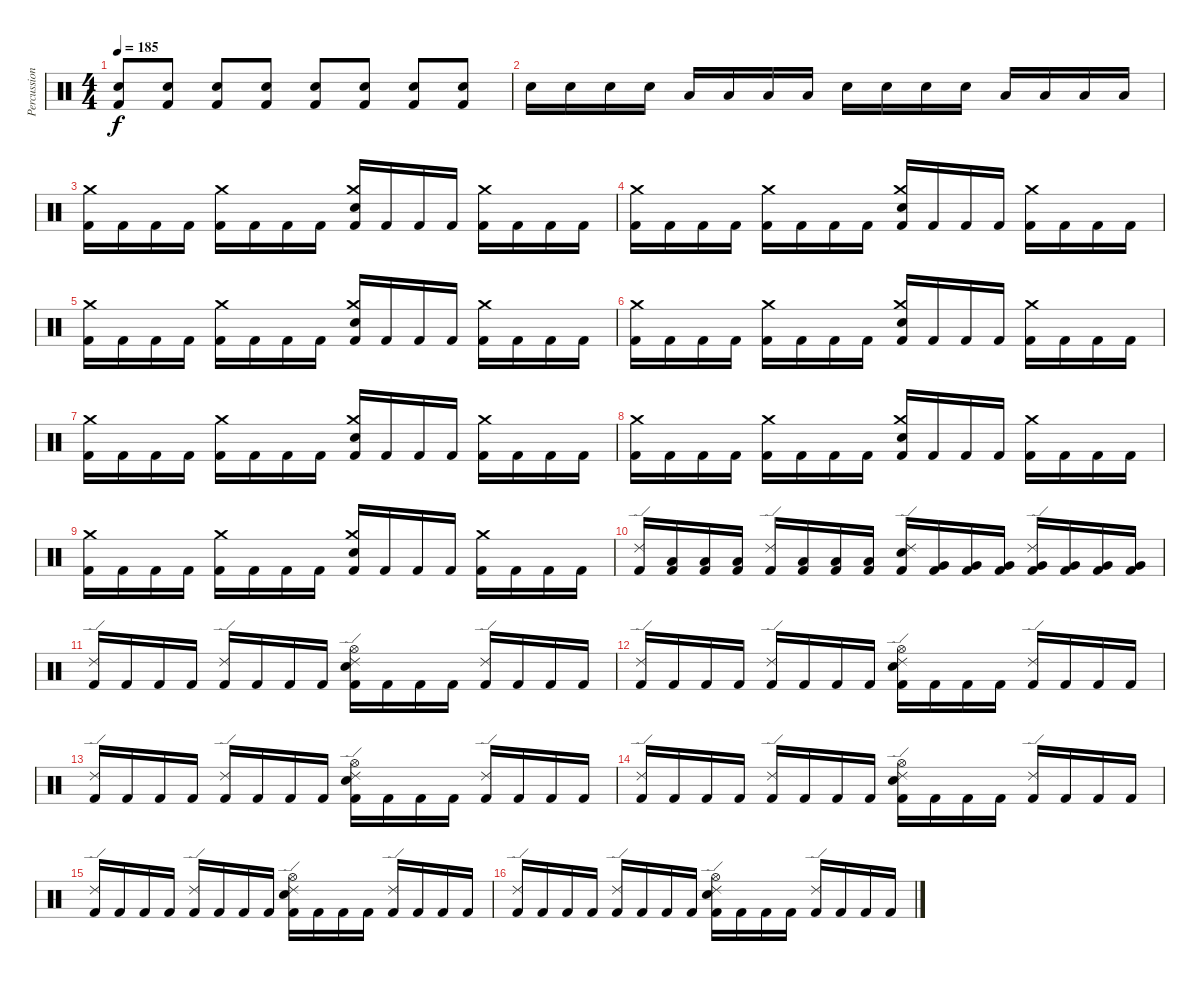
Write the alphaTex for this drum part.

\track ("Percussion" "Percussion") {instrument percussion}
\staff {score}
\articulation defaults
\ts (4 4)
\tempo 185
\clef neutral
\ks c
("Electric Snare (hit)" "Kick (hit) 2").8{dy f} ("Electric Snare (hit)" "Kick (hit) 2").8 ("Electric Snare (hit)" "Kick (hit) 2").8 ("Electric Snare (hit)" "Kick (hit) 2").8 ("Electric Snare (hit)" "Kick (hit) 2").8 ("Electric Snare (hit)" "Kick (hit) 2").8 ("Electric Snare (hit)" "Kick (hit) 2").8 ("Electric Snare (hit)" "Kick (hit) 2").8 |
"Electric Snare (hit)".16 "Electric Snare (hit)".16 "Electric Snare (hit)".16 "Electric Snare (hit)".16 "Low Floor Tom (hit)".16 "Low Floor Tom (hit)".16 "Low Floor Tom (hit)".16 "Low Floor Tom (hit)".16 "Electric Snare (hit)".16 "Electric Snare (hit)".16 "Electric Snare (hit)".16 "Electric Snare (hit)".16 "Low Floor Tom (hit)".16 "Low Floor Tom (hit)".16 "Low Floor Tom (hit)".16 "Low Floor Tom (hit)".16 |
("Crash medium (hit)" "Kick (hit) 2").16 "Kick (hit) 2".16 "Kick (hit) 2".16 "Kick (hit) 2".16 ("Crash medium (hit)" "Kick (hit) 2").16 "Kick (hit) 2".16 "Kick (hit) 2".16 "Kick (hit) 2".16 ("Crash medium (hit)" "Snare (hit) 2" "Kick (hit) 2").16 "Kick (hit) 2".16 "Kick (hit) 2".16 "Kick (hit) 2".16 ("Crash medium (hit)" "Kick (hit) 2").16 "Kick (hit) 2".16 "Kick (hit) 2".16 "Kick (hit) 2".16 |
("Crash medium (hit)" "Kick (hit) 2").16 "Kick (hit) 2".16 "Kick (hit) 2".16 "Kick (hit) 2".16 ("Crash medium (hit)" "Kick (hit) 2").16 "Kick (hit) 2".16 "Kick (hit) 2".16 "Kick (hit) 2".16 ("Crash medium (hit)" "Snare (hit) 2" "Kick (hit) 2").16 "Kick (hit) 2".16 "Kick (hit) 2".16 "Kick (hit) 2".16 ("Crash medium (hit)" "Kick (hit) 2").16 "Kick (hit) 2".16 "Kick (hit) 2".16 "Kick (hit) 2".16 |
("Crash medium (hit)" "Kick (hit) 2").16 "Kick (hit) 2".16 "Kick (hit) 2".16 "Kick (hit) 2".16 ("Crash medium (hit)" "Kick (hit) 2").16 "Kick (hit) 2".16 "Kick (hit) 2".16 "Kick (hit) 2".16 ("Crash medium (hit)" "Snare (hit) 2" "Kick (hit) 2").16 "Kick (hit) 2".16 "Kick (hit) 2".16 "Kick (hit) 2".16 ("Crash medium (hit)" "Kick (hit) 2").16 "Kick (hit) 2".16 "Kick (hit) 2".16 "Kick (hit) 2".16 |
("Crash medium (hit)" "Kick (hit) 2").16 "Kick (hit) 2".16 "Kick (hit) 2".16 "Kick (hit) 2".16 ("Crash medium (hit)" "Kick (hit) 2").16 "Kick (hit) 2".16 "Kick (hit) 2".16 "Kick (hit) 2".16 ("Crash medium (hit)" "Snare (hit) 2" "Kick (hit) 2").16 "Kick (hit) 2".16 "Kick (hit) 2".16 "Kick (hit) 2".16 ("Crash medium (hit)" "Kick (hit) 2").16 "Kick (hit) 2".16 "Kick (hit) 2".16 "Kick (hit) 2".16 |
("Crash medium (hit)" "Kick (hit) 2").16 "Kick (hit) 2".16 "Kick (hit) 2".16 "Kick (hit) 2".16 ("Crash medium (hit)" "Kick (hit) 2").16 "Kick (hit) 2".16 "Kick (hit) 2".16 "Kick (hit) 2".16 ("Crash medium (hit)" "Snare (hit) 2" "Kick (hit) 2").16 "Kick (hit) 2".16 "Kick (hit) 2".16 "Kick (hit) 2".16 ("Crash medium (hit)" "Kick (hit) 2").16 "Kick (hit) 2".16 "Kick (hit) 2".16 "Kick (hit) 2".16 |
("Crash medium (hit)" "Kick (hit) 2").16 "Kick (hit) 2".16 "Kick (hit) 2".16 "Kick (hit) 2".16 ("Crash medium (hit)" "Kick (hit) 2").16 "Kick (hit) 2".16 "Kick (hit) 2".16 "Kick (hit) 2".16 ("Crash medium (hit)" "Snare (hit) 2" "Kick (hit) 2").16 "Kick (hit) 2".16 "Kick (hit) 2".16 "Kick (hit) 2".16 ("Crash medium (hit)" "Kick (hit) 2").16 "Kick (hit) 2".16 "Kick (hit) 2".16 "Kick (hit) 2".16 |
("Crash medium (hit)" "Kick (hit) 2").16 "Kick (hit) 2".16 "Kick (hit) 2".16 "Kick (hit) 2".16 ("Crash medium (hit)" "Kick (hit) 2").16 "Kick (hit) 2".16 "Kick (hit) 2".16 "Kick (hit) 2".16 ("Crash medium (hit)" "Snare (hit) 2" "Kick (hit) 2").16 "Kick (hit) 2".16 "Kick (hit) 2".16 "Kick (hit) 2".16 ("Crash medium (hit)" "Kick (hit) 2").16 "Kick (hit) 2".16 "Kick (hit) 2".16 "Kick (hit) 2".16 |
("Ride (edge) 2" "Kick (hit) 2").16 ("Low Floor Tom (hit)" "Kick (hit) 2").16 ("Low Floor Tom (hit)" "Kick (hit) 2").16 ("Low Floor Tom (hit)" "Kick (hit) 2").16 ("Ride (edge) 2" "Kick (hit) 2").16 ("Low Floor Tom (hit)" "Kick (hit) 2").16 ("Low Floor Tom (hit)" "Kick (hit) 2").16 ("Low Floor Tom (hit)" "Kick (hit) 2").16 ("Ride (edge) 2" "Snare (hit) 2" "Kick (hit) 2").16 ("Very Low Tom (hit)" "Kick (hit) 2").16 ("Very Low Tom (hit)" "Kick (hit) 2").16 ("Very Low Tom (hit)" "Kick (hit) 2").16 ("Ride (edge) 2" "Very Low Tom (hit)" "Kick (hit) 2").16 ("Very Low Tom (hit)" "Kick (hit) 2").16 ("Very Low Tom (hit)" "Kick (hit) 2").16 ("Very Low Tom (hit)" "Kick (hit) 2").16 |
("Ride (edge) 2" "Kick (hit) 2").16 "Kick (hit) 2".16 "Kick (hit) 2".16 "Kick (hit) 2".16 ("Ride (edge) 2" "Kick (hit) 2").16 "Kick (hit) 2".16 "Kick (hit) 2".16 "Kick (hit) 2".16 ("Hi-Hat (open)" "Ride (edge) 2" "Snare (hit) 2" "Kick (hit) 2").16 "Kick (hit) 2".16 "Kick (hit) 2".16 "Kick (hit) 2".16 ("Ride (edge) 2" "Kick (hit) 2").16 "Kick (hit) 2".16 "Kick (hit) 2".16 "Kick (hit) 2".16 |
("Ride (edge) 2" "Kick (hit) 2").16 "Kick (hit) 2".16 "Kick (hit) 2".16 "Kick (hit) 2".16 ("Ride (edge) 2" "Kick (hit) 2").16 "Kick (hit) 2".16 "Kick (hit) 2".16 "Kick (hit) 2".16 ("Hi-Hat (open)" "Ride (edge) 2" "Snare (hit) 2" "Kick (hit) 2").16 "Kick (hit) 2".16 "Kick (hit) 2".16 "Kick (hit) 2".16 ("Ride (edge) 2" "Kick (hit) 2").16 "Kick (hit) 2".16 "Kick (hit) 2".16 "Kick (hit) 2".16 |
("Ride (edge) 2" "Kick (hit) 2").16 "Kick (hit) 2".16 "Kick (hit) 2".16 "Kick (hit) 2".16 ("Ride (edge) 2" "Kick (hit) 2").16 "Kick (hit) 2".16 "Kick (hit) 2".16 "Kick (hit) 2".16 ("Hi-Hat (open)" "Ride (edge) 2" "Snare (hit) 2" "Kick (hit) 2").16 "Kick (hit) 2".16 "Kick (hit) 2".16 "Kick (hit) 2".16 ("Ride (edge) 2" "Kick (hit) 2").16 "Kick (hit) 2".16 "Kick (hit) 2".16 "Kick (hit) 2".16 |
("Ride (edge) 2" "Kick (hit) 2").16 "Kick (hit) 2".16 "Kick (hit) 2".16 "Kick (hit) 2".16 ("Ride (edge) 2" "Kick (hit) 2").16 "Kick (hit) 2".16 "Kick (hit) 2".16 "Kick (hit) 2".16 ("Hi-Hat (open)" "Ride (edge) 2" "Snare (hit) 2" "Kick (hit) 2").16 "Kick (hit) 2".16 "Kick (hit) 2".16 "Kick (hit) 2".16 ("Ride (edge) 2" "Kick (hit) 2").16 "Kick (hit) 2".16 "Kick (hit) 2".16 "Kick (hit) 2".16 |
("Ride (edge) 2" "Kick (hit) 2").16 "Kick (hit) 2".16 "Kick (hit) 2".16 "Kick (hit) 2".16 ("Ride (edge) 2" "Kick (hit) 2").16 "Kick (hit) 2".16 "Kick (hit) 2".16 "Kick (hit) 2".16 ("Hi-Hat (open)" "Ride (edge) 2" "Snare (hit) 2" "Kick (hit) 2").16 "Kick (hit) 2".16 "Kick (hit) 2".16 "Kick (hit) 2".16 ("Ride (edge) 2" "Kick (hit) 2").16 "Kick (hit) 2".16 "Kick (hit) 2".16 "Kick (hit) 2".16 |
("Ride (edge) 2" "Kick (hit) 2").16 "Kick (hit) 2".16 "Kick (hit) 2".16 "Kick (hit) 2".16 ("Ride (edge) 2" "Kick (hit) 2").16 "Kick (hit) 2".16 "Kick (hit) 2".16 "Kick (hit) 2".16 ("Hi-Hat (open)" "Ride (edge) 2" "Snare (hit) 2" "Kick (hit) 2").16 "Kick (hit) 2".16 "Kick (hit) 2".16 "Kick (hit) 2".16 ("Ride (edge) 2" "Kick (hit) 2").16 "Kick (hit) 2".16 "Kick (hit) 2".16 "Kick (hit) 2".16
